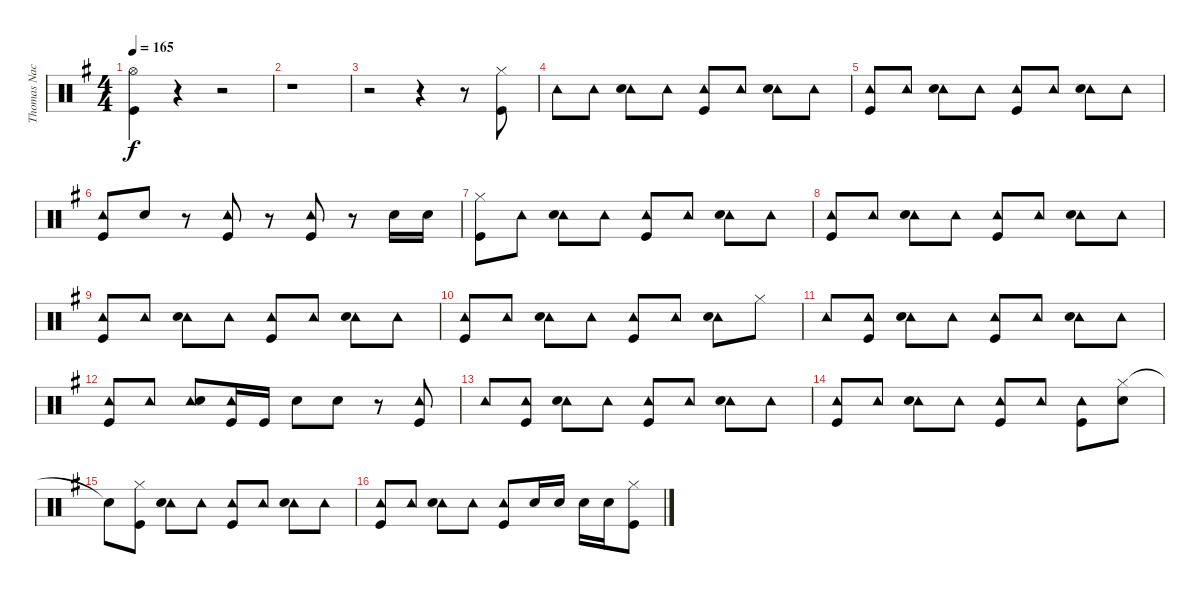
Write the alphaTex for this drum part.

\track ("Thomas Nack" "Thomas Nac") {instrument percussion}
\staff {score}
\articulation defaults
\ts (4 4)
\tempo 165
\clef neutral
\ks g
("Hi-Hat (open)" "Kick (hit)").4{dy f} r.4 r.2 |
r.1 |
r.2 r.4 r.8 ("Hi-Hat (closed)" "Kick (hit)").8 |
"Tambourine (hit)".8 "Tambourine (hit)".8 ("Tambourine (hit)" "Snare (hit) 2").8 "Tambourine (hit)".8 ("Tambourine (hit)" "Kick (hit)").8 "Tambourine (hit)".8 ("Tambourine (hit)" "Snare (hit) 2").8 "Tambourine (hit)".8 |
("Tambourine (hit)" "Kick (hit)").8 "Tambourine (hit)".8 ("Tambourine (hit)" "Snare (hit) 2").8 "Tambourine (hit)".8 ("Tambourine (hit)" "Kick (hit)").8 "Tambourine (hit)".8 ("Tambourine (hit)" "Snare (hit) 2").8 "Tambourine (hit)".8 |
("Tambourine (hit)" "Kick (hit)").8 "Snare (hit) 2".8 r.8 ("Tambourine (hit)" "Kick (hit)").8 r.8 ("Tambourine (hit)" "Kick (hit)").8 r.8 "Snare (hit) 2".16 "Snare (hit) 2".16 |
("Hi-Hat (closed)" "Kick (hit)").8 "Tambourine (hit)".8 ("Tambourine (hit)" "Snare (hit) 2").8 "Tambourine (hit)".8 ("Tambourine (hit)" "Kick (hit)").8 "Tambourine (hit)".8 ("Tambourine (hit)" "Snare (hit) 2").8 "Tambourine (hit)".8 |
("Tambourine (hit)" "Kick (hit)").8 "Tambourine (hit)".8 ("Tambourine (hit)" "Snare (hit) 2").8 "Tambourine (hit)".8 ("Tambourine (hit)" "Kick (hit)").8 "Tambourine (hit)".8 ("Tambourine (hit)" "Snare (hit) 2").8 "Tambourine (hit)".8 |
("Tambourine (hit)" "Kick (hit)").8 "Tambourine (hit)".8 ("Tambourine (hit)" "Snare (hit) 2").8 "Tambourine (hit)".8 ("Tambourine (hit)" "Kick (hit)").8 "Tambourine (hit)".8 ("Tambourine (hit)" "Snare (hit) 2").8 "Tambourine (hit)".8 |
("Tambourine (hit)" "Kick (hit)").8 "Tambourine (hit)".8 ("Tambourine (hit)" "Snare (hit) 2").8 "Tambourine (hit)".8 ("Tambourine (hit)" "Kick (hit)").8 "Tambourine (hit)".8 ("Tambourine (hit)" "Snare (hit) 2").8 "Hi-Hat (closed)".8 |
"Tambourine (hit)".8 ("Tambourine (hit)" "Kick (hit)").8 ("Tambourine (hit)" "Snare (hit) 2").8 "Tambourine (hit)".8 ("Tambourine (hit)" "Kick (hit)").8 "Tambourine (hit)".8 ("Tambourine (hit)" "Snare (hit) 2").8 "Tambourine (hit)".8 |
("Tambourine (hit)" "Kick (hit)").8 "Tambourine (hit)".8 ("Tambourine (hit)" "Snare (hit) 2").8 ("Tambourine (hit)" "Kick (hit)").16 "Kick (hit)".16 "Snare (hit) 2".8 "Snare (hit) 2".8 r.8 ("Tambourine (hit)" "Kick (hit)").8 |
"Tambourine (hit)".8 ("Tambourine (hit)" "Kick (hit)").8 ("Tambourine (hit)" "Snare (hit) 2").8 "Tambourine (hit)".8 ("Tambourine (hit)" "Kick (hit)").8 "Tambourine (hit)".8 ("Tambourine (hit)" "Snare (hit) 2").8 "Tambourine (hit)".8 |
("Tambourine (hit)" "Kick (hit)").8 "Tambourine (hit)".8 ("Tambourine (hit)" "Snare (hit) 2").8 "Tambourine (hit)".8 ("Tambourine (hit)" "Kick (hit)").8 "Tambourine (hit)".8 ("Tambourine (hit)" "Kick (hit)").8 ("Hi-Hat (closed)" "Snare (hit) 2").8 |
"Snare (hit)"{t}.8 ("Hi-Hat (closed)" "Kick (hit)").8 ("Tambourine (hit)" "Snare (hit) 2").8 "Tambourine (hit)".8 ("Tambourine (hit)" "Kick (hit)").8 "Tambourine (hit)".8 ("Tambourine (hit)" "Snare (hit) 2").8 "Tambourine (hit)".8 |
("Tambourine (hit)" "Kick (hit)").8 "Tambourine (hit)".8 ("Tambourine (hit)" "Snare (hit) 2").8 "Tambourine (hit)".8 ("Tambourine (hit)" "Kick (hit)").8 "Snare (hit) 2".16 "Snare (hit) 2".16 "Snare (hit) 2".16 "Snare (hit) 2".16 ("Hi-Hat (closed)" "Kick (hit)").8
